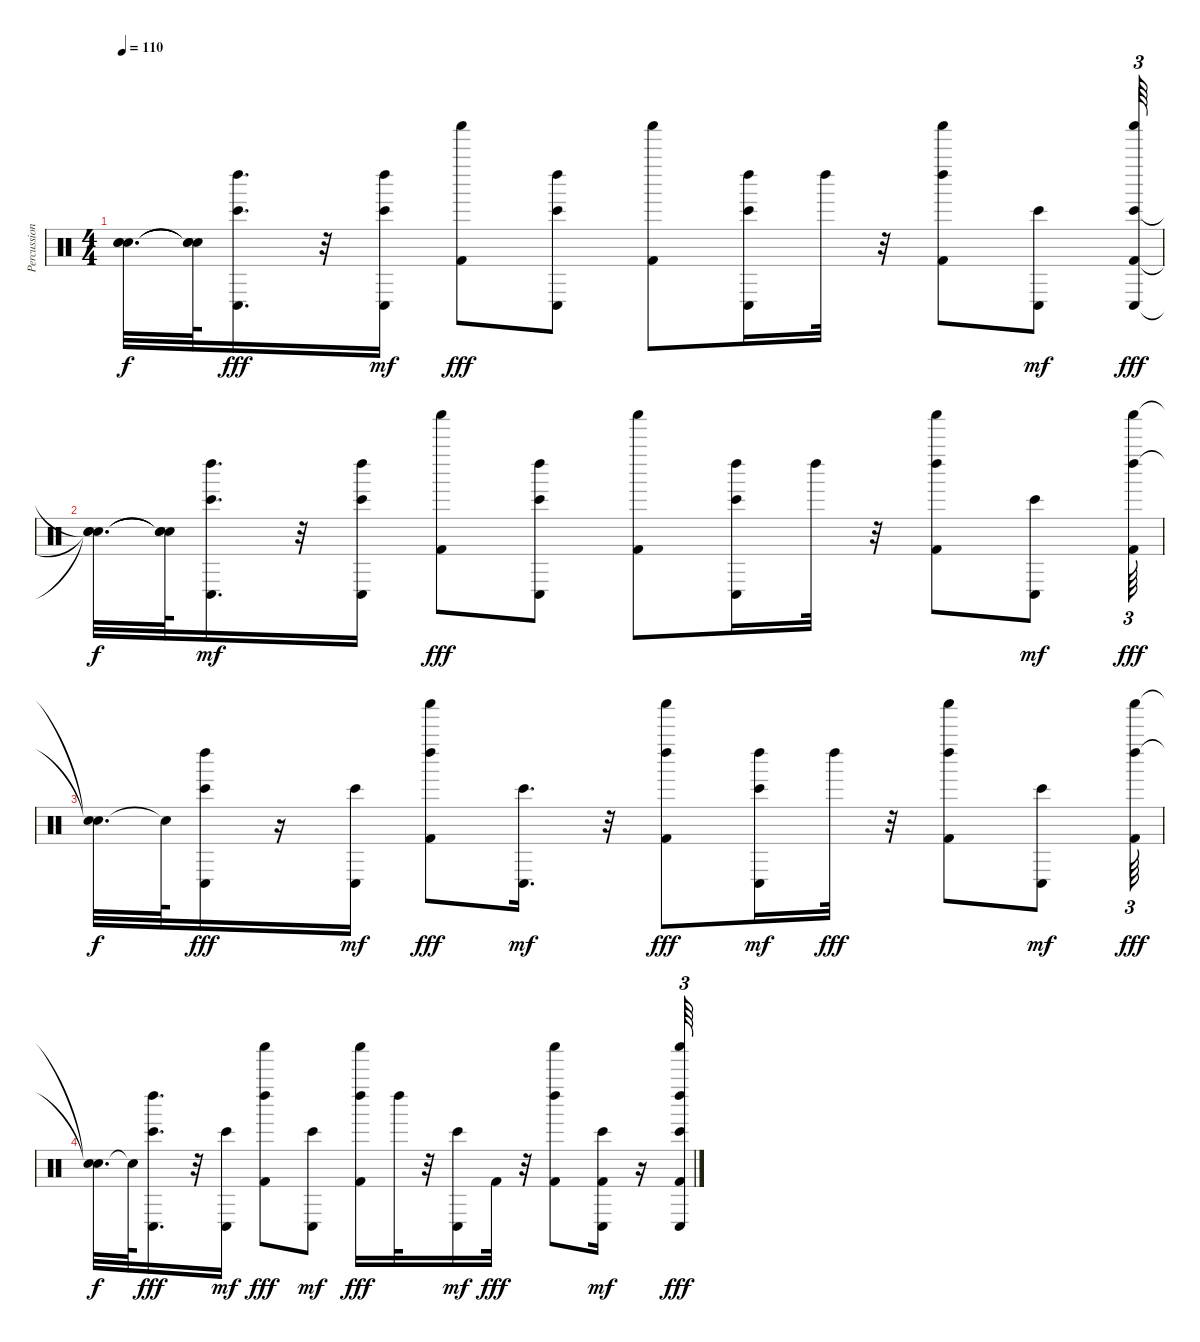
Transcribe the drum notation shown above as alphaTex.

\track ("Percussion" "Percussion") {instrument percussion}
\staff {score}
\articulation defaults
\ts (4 4)
\tempo 110
\clef neutral
\ks c
("Snare (hit)"{t} "Snare (hit)"{t} "Snare (hit)"{t}).32{d dy f} ("Snare (hit)"{t} "Snare (hit)"{t} "Snare (hit)"{t}).64 ("Conga low (hit)" "Bongo High (hit)" "Left Maraca (hit)").16{d dy fff} r.32 ("Left Maraca (hit)" "Conga low (hit)" "Bongo High (hit)").16{dy mf} ("Shaker (hit)" "Kick (hit) 2").8{dy fff} ("Bongo High (hit)" "Conga low (hit)" "Left Maraca (hit)").8 ("Shaker (hit)" "Kick (hit) 2").8 ("Bongo High (hit)" "Conga low (hit)" "Left Maraca (hit)").16 "Left Maraca (hit)".32 r.32 ("Left Maraca (hit)" "Kick (hit) 2" "Shaker (hit)").8 ("Conga low (hit)" "Bongo High (hit)").8{dy mf} ("Bongo High (hit)" "Kick (hit) 2" "Conga low (hit)" "Shaker (hit)").64{tu (3 2) dy fff} |
("Snare (hit)"{t} "Snare (hit)"{t} "Snare (hit)"{t}).32{d dy f} ("Snare (hit)"{t} "Snare (hit)"{t} "Snare (hit)"{t}).64 ("Bongo High (hit)" "Left Maraca (hit)" "Conga low (hit)").16{d dy mf} r.32 ("Conga low (hit)" "Left Maraca (hit)" "Bongo High (hit)").16 ("Kick (hit) 2" "Shaker (hit)").8{dy fff} ("Conga low (hit)" "Bongo High (hit)" "Left Maraca (hit)").8 ("Shaker (hit)" "Kick (hit) 2").8 ("Bongo High (hit)" "Conga low (hit)" "Left Maraca (hit)").16 "Left Maraca (hit)".32 r.32 ("Left Maraca (hit)" "Kick (hit) 2" "Shaker (hit)").8 ("Bongo High (hit)" "Conga low (hit)").8{dy mf} ("Left Maraca (hit)" "Shaker (hit)" "Kick (hit) 2").64{tu (3 2) dy fff} |
("Snare (hit)"{t} "Snare (hit)"{t}).32{d dy f} "Snare (hit)"{t}.64 ("Conga low (hit)" "Bongo High (hit)" "Left Maraca (hit)").16{dy fff} r.16 ("Conga low (hit)" "Bongo High (hit)").16{dy mf} ("Shaker (hit)" "Kick (hit) 2" "Left Maraca (hit)").8{dy fff} ("Conga low (hit)" "Bongo High (hit)").16{d dy mf} r.32 ("Left Maraca (hit)" "Kick (hit) 2" "Shaker (hit)").8{dy fff} ("Left Maraca (hit)" "Bongo High (hit)" "Conga low (hit)").16{dy mf} "Left Maraca (hit)".32{dy fff} r.32 ("Left Maraca (hit)" "Shaker (hit)" "Kick (hit) 2").8 ("Conga low (hit)" "Bongo High (hit)").8{dy mf} ("Shaker (hit)" "Left Maraca (hit)" "Kick (hit) 2").64{tu (3 2) dy fff} |
("Snare (hit)"{t} "Snare (hit)"{t}).32{d dy f} "Snare (hit)"{t}.64 ("Conga low (hit)" "Bongo High (hit)" "Left Maraca (hit)").16{d dy fff} r.32 ("Bongo High (hit)" "Conga low (hit)").16{dy mf} ("Shaker (hit)" "Kick (hit) 2" "Left Maraca (hit)").8{dy fff} ("Conga low (hit)" "Bongo High (hit)").8{dy mf} ("Kick (hit) 2" "Left Maraca (hit)" "Shaker (hit)").16{dy fff} "Left Maraca (hit)".32 r.32 ("Bongo High (hit)" "Conga low (hit)").16{dy mf} "Kick (hit) 2".32{dy fff} r.32 ("Shaker (hit)" "Kick (hit) 2" "Left Maraca (hit)").8 ("Conga low (hit)" "Kick (hit) 2" "Bongo High (hit)").16{dy mf} r.16 ("Conga low (hit)" "Kick (hit) 2" "Shaker (hit)" "Bongo High (hit)" "Left Maraca (hit)").64{tu (3 2) dy fff}
